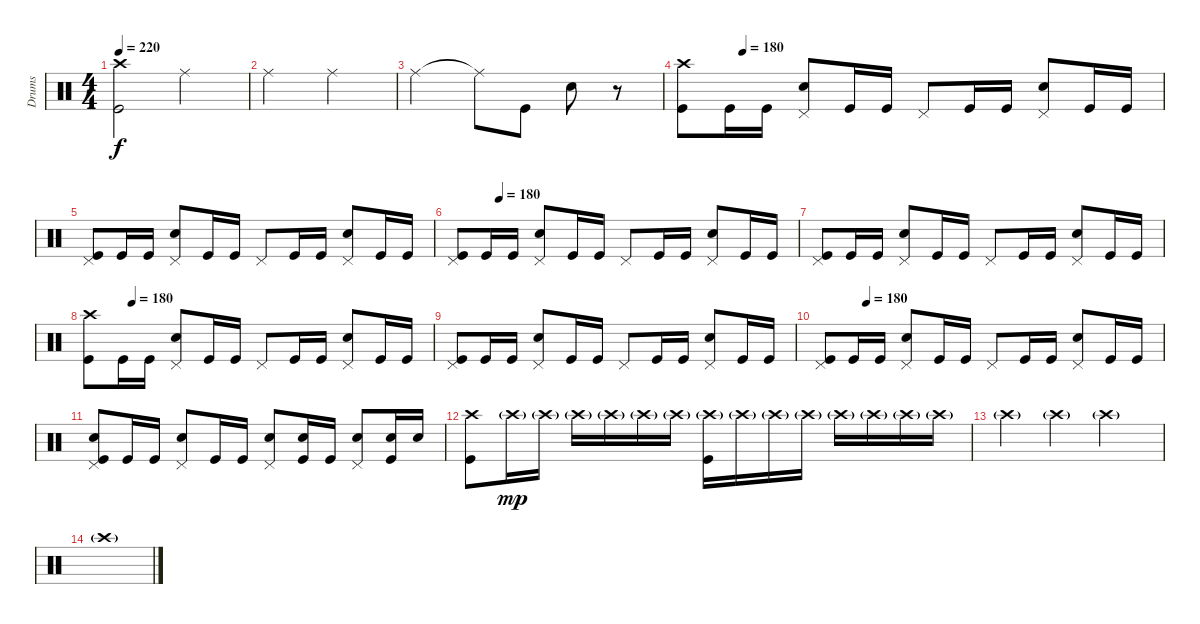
\track ("Drums" "Drums") {instrument percussion}
\staff {score}
\articulation defaults
\ts (4 4)
\tempo 220
\clef neutral
\ks c
("Crash high (hit)" "Kick (hit)").2{dy f} "Ride (middle)".2 |
"Ride (middle)".2 "Ride (middle)".2 |
"Ride (middle)".2 "Ride (middle)"{t}.8 "Kick (hit)".8 "Snare (hit) 2".8 r.8 |
\tempo (180 0.125)
("Crash high (hit)" "Kick (hit)").8 "Kick (hit)".16 "Kick (hit)".16 ("Pedal Hi-Hat (hit)" "Electric Snare (hit)").8 "Kick (hit)".16 "Kick (hit)".16 "Pedal Hi-Hat (hit)".8 "Kick (hit)".16 "Kick (hit)".16 ("Pedal Hi-Hat (hit)" "Electric Snare (hit)").8 "Kick (hit)".16 "Kick (hit)".16 |
("Pedal Hi-Hat (hit)" "Kick (hit)").8 "Kick (hit)".16 "Kick (hit)".16 ("Pedal Hi-Hat (hit)" "Electric Snare (hit)").8 "Kick (hit)".16 "Kick (hit)".16 "Pedal Hi-Hat (hit)".8 "Kick (hit)".16 "Kick (hit)".16 ("Pedal Hi-Hat (hit)" "Electric Snare (hit)").8 "Kick (hit)".16 "Kick (hit)".16 |
\tempo (180 0.125)
("Pedal Hi-Hat (hit)" "Kick (hit)").8 "Kick (hit)".16 "Kick (hit)".16 ("Pedal Hi-Hat (hit)" "Electric Snare (hit)").8 "Kick (hit)".16 "Kick (hit)".16 "Pedal Hi-Hat (hit)".8 "Kick (hit)".16 "Kick (hit)".16 ("Pedal Hi-Hat (hit)" "Electric Snare (hit)").8 "Kick (hit)".16 "Kick (hit)".16 |
("Pedal Hi-Hat (hit)" "Kick (hit)").8 "Kick (hit)".16 "Kick (hit)".16 ("Pedal Hi-Hat (hit)" "Electric Snare (hit)").8 "Kick (hit)".16 "Kick (hit)".16 "Pedal Hi-Hat (hit)".8 "Kick (hit)".16 "Kick (hit)".16 ("Pedal Hi-Hat (hit)" "Electric Snare (hit)").8 "Kick (hit)".16 "Kick (hit)".16 |
\tempo (180 0.125)
("Crash high (hit)" "Kick (hit)").8 "Kick (hit)".16 "Kick (hit)".16 ("Pedal Hi-Hat (hit)" "Electric Snare (hit)").8 "Kick (hit)".16 "Kick (hit)".16 "Pedal Hi-Hat (hit)".8 "Kick (hit)".16 "Kick (hit)".16 ("Pedal Hi-Hat (hit)" "Electric Snare (hit)").8 "Kick (hit)".16 "Kick (hit)".16 |
("Pedal Hi-Hat (hit)" "Kick (hit)").8 "Kick (hit)".16 "Kick (hit)".16 ("Pedal Hi-Hat (hit)" "Electric Snare (hit)").8 "Kick (hit)".16 "Kick (hit)".16 "Pedal Hi-Hat (hit)".8 "Kick (hit)".16 "Kick (hit)".16 ("Pedal Hi-Hat (hit)" "Electric Snare (hit)").8 "Kick (hit)".16 "Kick (hit)".16 |
\tempo (150 0.125)
\tempo (180 0.125)
("Pedal Hi-Hat (hit)" "Kick (hit)").8 "Kick (hit)".16 "Kick (hit)".16 ("Pedal Hi-Hat (hit)" "Electric Snare (hit)").8 "Kick (hit)".16 "Kick (hit)".16 "Pedal Hi-Hat (hit)".8 "Kick (hit)".16 "Kick (hit)".16 ("Pedal Hi-Hat (hit)" "Electric Snare (hit)").8 "Kick (hit)".16 "Kick (hit)".16 |
("Pedal Hi-Hat (hit)" "Electric Snare (hit)" "Kick (hit)").8 "Kick (hit)".16 "Kick (hit)".16 ("Pedal Hi-Hat (hit)" "Electric Snare (hit)").8 "Kick (hit)".16 "Kick (hit)".16 ("Pedal Hi-Hat (hit)" "Electric Snare (hit)").8 ("Electric Snare (hit)" "Kick (hit)").16 "Kick (hit)".16 ("Pedal Hi-Hat (hit)" "Electric Snare (hit)").8 ("Electric Snare (hit)" "Kick (hit)").16 "Electric Snare (hit)".16 |
("Crash high (hit)" "Kick (hit)").8 "Crash high (hit)"{g}.16{dy mp} "Crash high (hit)"{g}.16 "Crash high (hit)"{g}.16 "Crash high (hit)"{g}.16 "Crash high (hit)"{g}.16 "Crash high (hit)"{g}.16 ("Crash high (hit)"{g} "Kick (hit)").16 "Crash high (hit)"{g}.16 "Crash high (hit)"{g}.16 "Crash high (hit)"{g}.16 "Crash high (hit)"{g}.16 "Crash high (hit)"{g}.16 "Crash high (hit)"{g}.16 "Crash high (hit)"{g}.16 |
"Crash high (hit)"{g}.4 "Crash high (hit)"{g}.4 "Crash high (hit)"{g}.2 |
"Crash high (hit)"{g}.1
